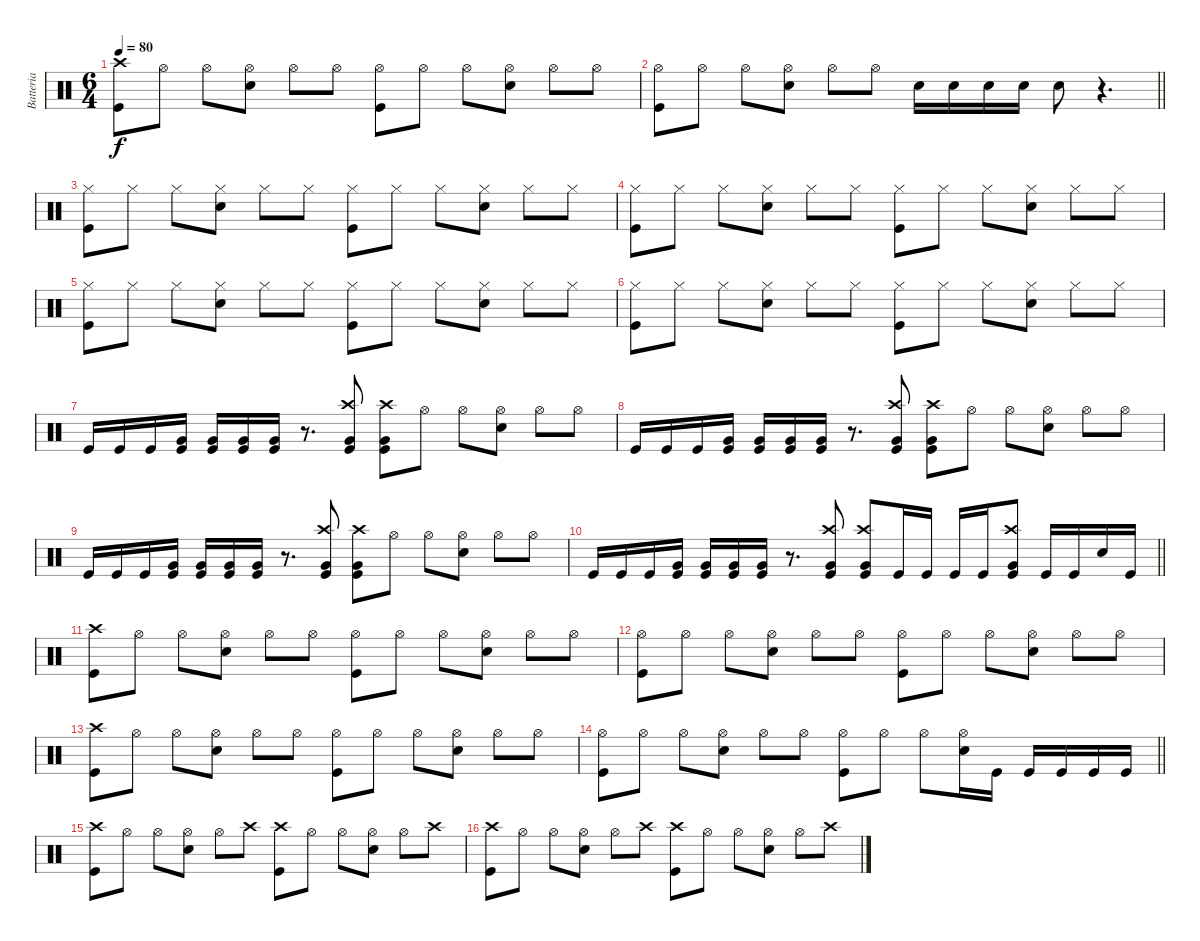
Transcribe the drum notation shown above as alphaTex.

\track ("Batteria" "Batteria") {instrument percussion}
\staff {score}
\articulation defaults
\ts (6 4)
\tempo 80
\clef neutral
\ks c
("Kick (hit)" "Crash high (hit)").8{dy f} "Hi-Hat (open)".8 "Hi-Hat (open)".8 ("Snare (hit) 2" "Hi-Hat (open)").8 "Hi-Hat (open)".8 "Hi-Hat (open)".8 ("Kick (hit)" "Hi-Hat (open)").8 "Hi-Hat (open)".8 "Hi-Hat (open)".8 ("Snare (hit) 2" "Hi-Hat (open)").8 "Hi-Hat (open)".8 "Hi-Hat (open)".8 |
\barLineRight lightlight
("Kick (hit)" "Hi-Hat (open)").8 "Hi-Hat (open)".8 "Hi-Hat (open)".8 ("Snare (hit) 2" "Hi-Hat (open)").8 "Hi-Hat (open)".8 "Hi-Hat (open)".8 "Snare (hit) 2".16 "Snare (hit) 2".16 "Snare (hit) 2".16 "Snare (hit) 2".16 "Snare (hit) 2".8 r.4{d} |
("Kick (hit)" "Hi-Hat (closed)").8 "Hi-Hat (closed)".8 "Hi-Hat (closed)".8 ("Snare (hit) 2" "Hi-Hat (closed)").8 "Hi-Hat (closed)".8 "Hi-Hat (closed)".8 ("Kick (hit)" "Hi-Hat (closed)").8 "Hi-Hat (closed)".8 "Hi-Hat (closed)".8 ("Snare (hit) 2" "Hi-Hat (closed)").8 "Hi-Hat (closed)".8 "Hi-Hat (closed)".8 |
("Kick (hit)" "Hi-Hat (closed)").8 "Hi-Hat (closed)".8 "Hi-Hat (closed)".8 ("Snare (hit) 2" "Hi-Hat (closed)").8 "Hi-Hat (closed)".8 "Hi-Hat (closed)".8 ("Kick (hit)" "Hi-Hat (closed)").8 "Hi-Hat (closed)".8 "Hi-Hat (closed)".8 ("Snare (hit) 2" "Hi-Hat (closed)").8 "Hi-Hat (closed)".8 "Hi-Hat (closed)".8 |
("Kick (hit)" "Hi-Hat (closed)").8 "Hi-Hat (closed)".8 "Hi-Hat (closed)".8 ("Snare (hit) 2" "Hi-Hat (closed)").8 "Hi-Hat (closed)".8 "Hi-Hat (closed)".8 ("Kick (hit)" "Hi-Hat (closed)").8 "Hi-Hat (closed)".8 "Hi-Hat (closed)".8 ("Snare (hit) 2" "Hi-Hat (closed)").8 "Hi-Hat (closed)".8 "Hi-Hat (closed)".8 |
("Kick (hit)" "Hi-Hat (closed)").8 "Hi-Hat (closed)".8 "Hi-Hat (closed)".8 ("Snare (hit) 2" "Hi-Hat (closed)").8 "Hi-Hat (closed)".8 "Hi-Hat (closed)".8 ("Kick (hit)" "Hi-Hat (closed)").8 "Hi-Hat (closed)".8 "Hi-Hat (closed)".8 ("Snare (hit) 2" "Hi-Hat (closed)").8 "Hi-Hat (closed)".8 "Hi-Hat (closed)".8 |
"Kick (hit)".16 "Kick (hit)".16 "Kick (hit)".16 ("Very Low Tom (hit)" "Kick (hit)").16 ("Very Low Tom (hit)" "Kick (hit)").16 ("Very Low Tom (hit)" "Kick (hit)").16 ("Very Low Tom (hit)" "Kick (hit)").16 r.8{d} ("Kick (hit)" "Crash high (hit)" "Very Low Tom (hit)").8 ("Kick (hit)" "Crash high (hit)" "Very Low Tom (hit)").8 "Hi-Hat (open)".8 "Hi-Hat (open)".8 ("Snare (hit) 2" "Hi-Hat (open)").8 "Hi-Hat (open)".8 "Hi-Hat (open)".8 |
"Kick (hit)".16 "Kick (hit)".16 "Kick (hit)".16 ("Very Low Tom (hit)" "Kick (hit)").16 ("Very Low Tom (hit)" "Kick (hit)").16 ("Very Low Tom (hit)" "Kick (hit)").16 ("Very Low Tom (hit)" "Kick (hit)").16 r.8{d} ("Kick (hit)" "Crash high (hit)" "Very Low Tom (hit)").8 ("Kick (hit)" "Crash high (hit)" "Very Low Tom (hit)").8 "Hi-Hat (open)".8 "Hi-Hat (open)".8 ("Snare (hit) 2" "Hi-Hat (open)").8 "Hi-Hat (open)".8 "Hi-Hat (open)".8 |
"Kick (hit)".16 "Kick (hit)".16 "Kick (hit)".16 ("Very Low Tom (hit)" "Kick (hit)").16 ("Very Low Tom (hit)" "Kick (hit)").16 ("Very Low Tom (hit)" "Kick (hit)").16 ("Very Low Tom (hit)" "Kick (hit)").16 r.8{d} ("Kick (hit)" "Crash high (hit)" "Very Low Tom (hit)").8 ("Kick (hit)" "Crash high (hit)" "Very Low Tom (hit)").8 "Hi-Hat (open)".8 "Hi-Hat (open)".8 ("Snare (hit) 2" "Hi-Hat (open)").8 "Hi-Hat (open)".8 "Hi-Hat (open)".8 |
\barLineRight lightlight "Kick (hit)".16 "Kick (hit)".16 "Kick (hit)".16
("Very Low Tom (hit)" "Kick (hit)").16 ("Very Low Tom (hit)" "Kick (hit)").16 ("Very Low Tom (hit)" "Kick (hit)").16 ("Very Low Tom (hit)" "Kick (hit)").16 r.8{d} ("Kick (hit)" "Crash high (hit)" "Very Low Tom (hit)").8 ("Kick (hit)" "Crash high (hit)" "Very Low Tom (hit)").8 "Kick (hit)".16 "Kick (hit)".16 "Kick (hit)".16 "Kick (hit)".16 ("Kick (hit)" "Crash high (hit)" "Very Low Tom (hit)").8 "Kick (hit)".16 "Kick (hit)".16 "Snare (hit) 2".16 "Kick (hit)".16 |
("Kick (hit)" "Crash high (hit)").8 "Hi-Hat (open)".8 "Hi-Hat (open)".8 ("Snare (hit) 2" "Hi-Hat (open)").8 "Hi-Hat (open)".8 "Hi-Hat (open)".8 ("Kick (hit)" "Hi-Hat (open)").8 "Hi-Hat (open)".8 "Hi-Hat (open)".8 ("Snare (hit) 2" "Hi-Hat (open)").8 "Hi-Hat (open)".8 "Hi-Hat (open)".8 |
("Kick (hit)" "Hi-Hat (open)").8 "Hi-Hat (open)".8 "Hi-Hat (open)".8 ("Snare (hit) 2" "Hi-Hat (open)").8 "Hi-Hat (open)".8 "Hi-Hat (open)".8 ("Kick (hit)" "Hi-Hat (open)").8 "Hi-Hat (open)".8 "Hi-Hat (open)".8 ("Snare (hit) 2" "Hi-Hat (open)").8 "Hi-Hat (open)".8 "Hi-Hat (open)".8 |
("Kick (hit)" "Crash high (hit)").8 "Hi-Hat (open)".8 "Hi-Hat (open)".8 ("Snare (hit) 2" "Hi-Hat (open)").8 "Hi-Hat (open)".8 "Hi-Hat (open)".8 ("Kick (hit)" "Hi-Hat (open)").8 "Hi-Hat (open)".8 "Hi-Hat (open)".8 ("Snare (hit) 2" "Hi-Hat (open)").8 "Hi-Hat (open)".8 "Hi-Hat (open)".8 |
\barLineRight lightlight
("Kick (hit)" "Hi-Hat (open)").8 "Hi-Hat (open)".8 "Hi-Hat (open)".8 ("Snare (hit) 2" "Hi-Hat (open)").8 "Hi-Hat (open)".8 "Hi-Hat (open)".8 ("Kick (hit)" "Hi-Hat (open)").8 "Hi-Hat (open)".8 "Hi-Hat (open)".8 ("Snare (hit) 2" "Hi-Hat (open)").16 "Kick (hit)".16 "Kick (hit)".16 "Kick (hit)".16 "Kick (hit)".16 "Kick (hit)".16 |
("Kick (hit)" "Crash high (hit)").8 "Hi-Hat (open)".8 "Hi-Hat (open)".8 ("Snare (hit) 2" "Hi-Hat (open)").8 "Hi-Hat (open)".8 "Crash high (hit)".8 ("Kick (hit)" "Crash high (hit)").8 "Hi-Hat (open)".8 "Hi-Hat (open)".8 ("Snare (hit) 2" "Hi-Hat (open)").8 "Hi-Hat (open)".8 "Crash high (hit)".8 |
("Kick (hit)" "Crash high (hit)").8 "Hi-Hat (open)".8 "Hi-Hat (open)".8 ("Snare (hit) 2" "Hi-Hat (open)").8 "Hi-Hat (open)".8 "Crash high (hit)".8 ("Kick (hit)" "Crash high (hit)").8 "Hi-Hat (open)".8 "Hi-Hat (open)".8 ("Snare (hit) 2" "Hi-Hat (open)").8 "Hi-Hat (open)".8 "Crash high (hit)".8
